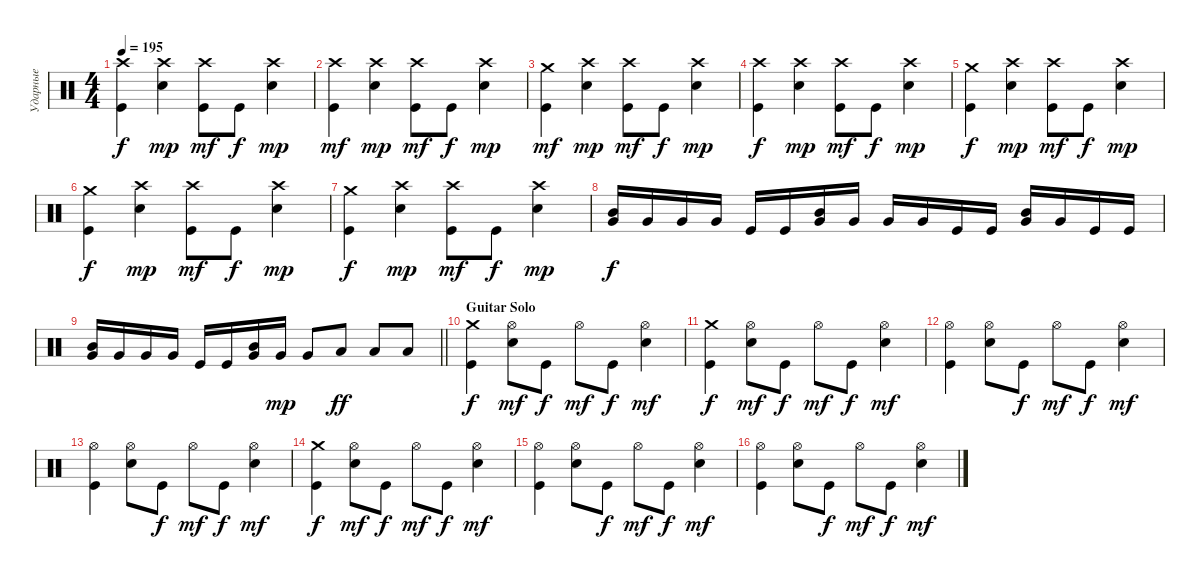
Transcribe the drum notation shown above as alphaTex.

\track ("Ударные" "Ударные") {instrument percussion}
\staff {score}
\articulation defaults
\ts (4 4)
\tempo 195
\clef neutral
\ks c
("Kick (hit)" "Crash high (hit)").4{dy f} ("Snare (hit) 2" "Crash high (hit)").4{dy mp} ("Kick (hit)" "Crash high (hit)").8{dy mf} "Kick (hit)".8{dy f} ("Snare (hit) 2" "Crash high (hit)").4{dy mp} |
("Kick (hit)" "Crash high (hit)").4{dy mf} ("Snare (hit) 2" "Crash high (hit)").4{dy mp} ("Kick (hit)" "Crash high (hit)").8{dy mf} "Kick (hit)".8{dy f} ("Snare (hit) 2" "Crash high (hit)").4{dy mp} |
("Kick (hit)" "Crash medium (hit)").4{dy mf} ("Snare (hit) 2" "Crash high (hit)").4{dy mp} ("Kick (hit)" "Crash high (hit)").8{dy mf} "Kick (hit)".8{dy f} ("Snare (hit) 2" "Crash high (hit)").4{dy mp} |
("Kick (hit)" "Crash high (hit)").4{dy f} ("Snare (hit) 2" "Crash high (hit)").4{dy mp} ("Kick (hit)" "Crash high (hit)").8{dy mf} "Kick (hit)".8{dy f} ("Snare (hit) 2" "Crash high (hit)").4{dy mp} |
("Kick (hit)" "Crash medium (hit)").4{dy f} ("Snare (hit) 2" "Crash high (hit)").4{dy mp} ("Kick (hit)" "Crash high (hit)").8{dy mf} "Kick (hit)".8{dy f} ("Snare (hit) 2" "Crash high (hit)").4{dy mp} |
("Kick (hit)" "Crash medium (hit)").4{dy f} ("Snare (hit) 2" "Crash high (hit)").4{dy mp} ("Kick (hit)" "Crash high (hit)").8{dy mf} "Kick (hit)".8{dy f} ("Snare (hit) 2" "Crash high (hit)").4{dy mp} |
("Kick (hit)" "Crash medium (hit)").4{dy f} ("Snare (hit) 2" "Crash high (hit)").4{dy mp} ("Kick (hit)" "Crash high (hit)").8{dy mf} "Kick (hit)".8{dy f} ("Snare (hit) 2" "Crash high (hit)").4{dy mp} |
("Mid Tom (hit)" "Very Low Tom (hit)").16{bd 240 dy f} "Very Low Tom (hit)".16 "Very Low Tom (hit)".16 "Very Low Tom (hit)".16 "Kick (hit)".16 "Kick (hit)".16 ("Mid Tom (hit)" "Very Low Tom (hit)").16{bd 240} "Very Low Tom (hit)".16 "Very Low Tom (hit)".16 "Very Low Tom (hit)".16 "Kick (hit)".16 "Kick (hit)".16 ("Mid Tom (hit)" "Very Low Tom (hit)").16{bd 240} "Very Low Tom (hit)".16 "Kick (hit)".16 "Kick (hit)".16 |
\barLineRight lightlight
("Mid Tom (hit)" "Very Low Tom (hit)").16{bd 240} "Very Low Tom (hit)".16 "Very Low Tom (hit)".16 "Very Low Tom (hit)".16 "Kick (hit)".16 "Kick (hit)".16 ("Mid Tom (hit)" "Very Low Tom (hit)").16{bd 240} "Very Low Tom (hit)".16{dy mp} "Very Low Tom (hit)".8 "Low Tom (hit)".8{dy ff} "Low Tom (hit)".8 "Low Tom (hit)".8 |
\section ("" "Guitar Solo")
("Kick (hit)" "Crash medium (hit)").4{dy f} ("Snare (hit) 2" "Hi-Hat (open)").8{dy mf} "Kick (hit)".8{dy f} "Hi-Hat (open)".8{dy mf} "Kick (hit)".8{dy f} ("Snare (hit) 2" "Hi-Hat (open)").4{dy mf} |
("Kick (hit)" "Crash medium (hit)").4{dy f} ("Snare (hit) 2" "Hi-Hat (open)").8{dy mf} "Kick (hit)".8{dy f} "Hi-Hat (open)".8{dy mf} "Kick (hit)".8{dy f} ("Snare (hit) 2" "Hi-Hat (open)").4{dy mf} |
("Kick (hit)" "Hi-Hat (open)").4 ("Snare (hit) 2" "Hi-Hat (open)").8 "Kick (hit)".8{dy f} "Hi-Hat (open)".8{dy mf} "Kick (hit)".8{dy f} ("Snare (hit) 2" "Hi-Hat (open)").4{dy mf} |
("Kick (hit)" "Hi-Hat (open)").4 ("Snare (hit) 2" "Hi-Hat (open)").8 "Kick (hit)".8{dy f} "Hi-Hat (open)".8{dy mf} "Kick (hit)".8{dy f} ("Snare (hit) 2" "Hi-Hat (open)").4{dy mf} |
("Kick (hit)" "Crash medium (hit)").4{dy f} ("Snare (hit) 2" "Hi-Hat (open)").8{dy mf} "Kick (hit)".8{dy f} "Hi-Hat (open)".8{dy mf} "Kick (hit)".8{dy f} ("Snare (hit) 2" "Hi-Hat (open)").4{dy mf} |
("Kick (hit)" "Hi-Hat (open)").4 ("Snare (hit) 2" "Hi-Hat (open)").8 "Kick (hit)".8{dy f} "Hi-Hat (open)".8{dy mf} "Kick (hit)".8{dy f} ("Snare (hit) 2" "Hi-Hat (open)").4{dy mf} |
("Kick (hit)" "Hi-Hat (open)").4 ("Snare (hit) 2" "Hi-Hat (open)").8 "Kick (hit)".8{dy f} "Hi-Hat (open)".8{dy mf} "Kick (hit)".8{dy f} ("Snare (hit) 2" "Hi-Hat (open)").4{dy mf}
